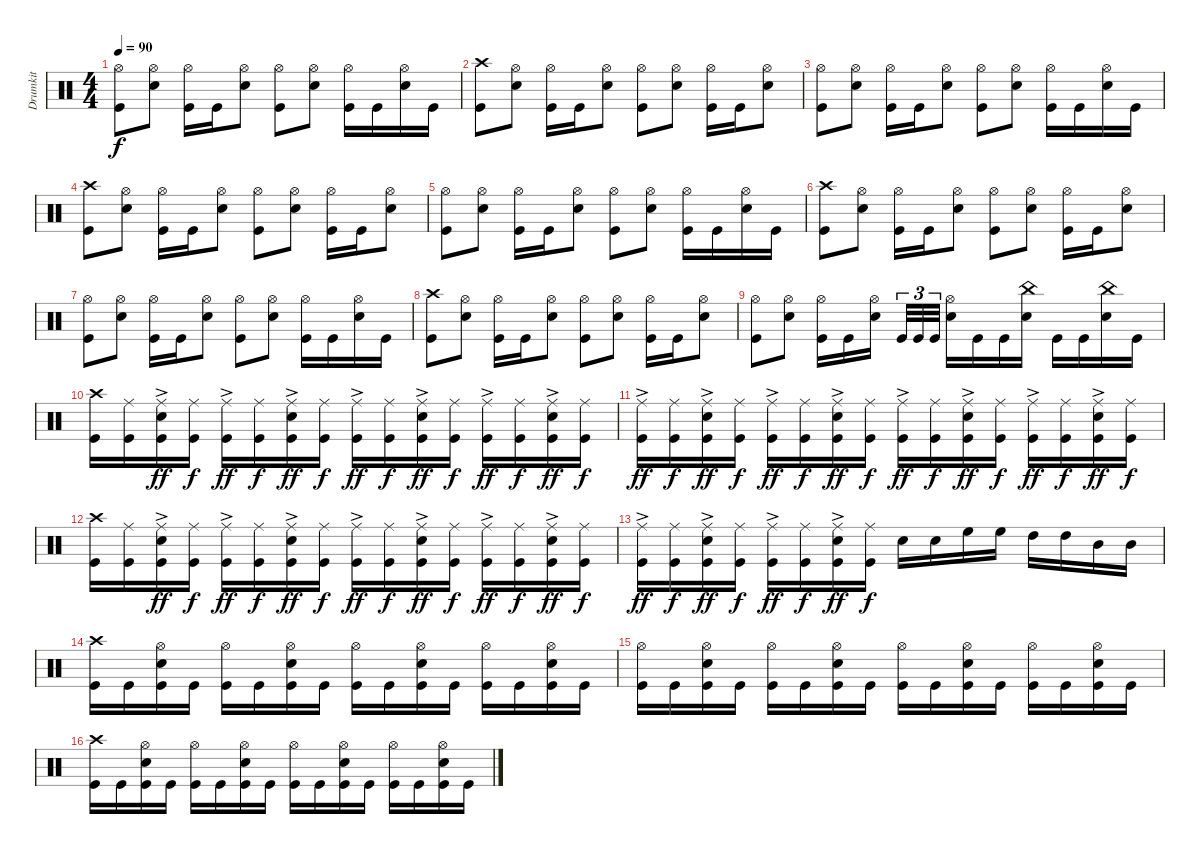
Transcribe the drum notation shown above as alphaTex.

\track ("Drumkit" "Drumkit") {instrument percussion}
\staff {score}
\articulation defaults
\ts (4 4)
\tempo 90
\clef neutral
\ks c
("Hi-Hat (open)" "Kick (hit)").8{dy f} ("Hi-Hat (open)" "Snare (hit) 2").8 ("Hi-Hat (open)" "Kick (hit)").16 "Kick (hit)".16 ("Hi-Hat (open)" "Snare (hit) 2").8 ("Hi-Hat (open)" "Kick (hit)").8 ("Hi-Hat (open)" "Snare (hit) 2").8 ("Hi-Hat (open)" "Kick (hit)").16 "Kick (hit)".16 ("Hi-Hat (open)" "Snare (hit) 2").16 "Kick (hit)".16 |
("Crash high (hit)" "Kick (hit)").8 ("Hi-Hat (open)" "Snare (hit) 2").8 ("Hi-Hat (open)" "Kick (hit)").16 "Kick (hit)".16 ("Hi-Hat (open)" "Snare (hit) 2").8 ("Hi-Hat (open)" "Kick (hit)").8 ("Hi-Hat (open)" "Snare (hit) 2").8 ("Hi-Hat (open)" "Kick (hit)").16 "Kick (hit)".16 ("Hi-Hat (open)" "Snare (hit) 2").8 |
("Hi-Hat (open)" "Kick (hit)").8 ("Hi-Hat (open)" "Snare (hit) 2").8 ("Hi-Hat (open)" "Kick (hit)").16 "Kick (hit)".16 ("Hi-Hat (open)" "Snare (hit) 2").8 ("Hi-Hat (open)" "Kick (hit)").8 ("Hi-Hat (open)" "Snare (hit) 2").8 ("Hi-Hat (open)" "Kick (hit)").16 "Kick (hit)".16 ("Hi-Hat (open)" "Snare (hit) 2").16 "Kick (hit)".16 |
("Crash high (hit)" "Kick (hit)").8 ("Hi-Hat (open)" "Snare (hit) 2").8 ("Hi-Hat (open)" "Kick (hit)").16 "Kick (hit)".16 ("Hi-Hat (open)" "Snare (hit) 2").8 ("Hi-Hat (open)" "Kick (hit)").8 ("Hi-Hat (open)" "Snare (hit) 2").8 ("Hi-Hat (open)" "Kick (hit)").16 "Kick (hit)".16 ("Hi-Hat (open)" "Snare (hit) 2").8 |
("Hi-Hat (open)" "Kick (hit)").8 ("Hi-Hat (open)" "Snare (hit) 2").8 ("Hi-Hat (open)" "Kick (hit)").16 "Kick (hit)".16 ("Hi-Hat (open)" "Snare (hit) 2").8 ("Hi-Hat (open)" "Kick (hit)").8 ("Hi-Hat (open)" "Snare (hit) 2").8 ("Hi-Hat (open)" "Kick (hit)").16 "Kick (hit)".16 ("Hi-Hat (open)" "Snare (hit) 2").16 "Kick (hit)".16 |
("Crash high (hit)" "Kick (hit)").8 ("Hi-Hat (open)" "Snare (hit) 2").8 ("Hi-Hat (open)" "Kick (hit)").16 "Kick (hit)".16 ("Hi-Hat (open)" "Snare (hit) 2").8 ("Hi-Hat (open)" "Kick (hit)").8 ("Hi-Hat (open)" "Snare (hit) 2").8 ("Hi-Hat (open)" "Kick (hit)").16 "Kick (hit)".16 ("Hi-Hat (open)" "Snare (hit) 2").8 |
("Hi-Hat (open)" "Kick (hit)").8 ("Hi-Hat (open)" "Snare (hit) 2").8 ("Hi-Hat (open)" "Kick (hit)").16 "Kick (hit)".16 ("Hi-Hat (open)" "Snare (hit) 2").8 ("Hi-Hat (open)" "Kick (hit)").8 ("Hi-Hat (open)" "Snare (hit) 2").8 ("Hi-Hat (open)" "Kick (hit)").16 "Kick (hit)".16 ("Hi-Hat (open)" "Snare (hit) 2").16 "Kick (hit)".16 |
("Crash high (hit)" "Kick (hit)").8 ("Hi-Hat (open)" "Snare (hit) 2").8 ("Hi-Hat (open)" "Kick (hit)").16 "Kick (hit)".16 ("Hi-Hat (open)" "Snare (hit) 2").8 ("Hi-Hat (open)" "Kick (hit)").8 ("Hi-Hat (open)" "Snare (hit) 2").8 ("Hi-Hat (open)" "Kick (hit)").16 "Kick (hit)".16 ("Hi-Hat (open)" "Snare (hit) 2").8 |
("Hi-Hat (open)" "Kick (hit)").8 ("Hi-Hat (open)" "Snare (hit) 2").8 ("Hi-Hat (open)" "Kick (hit)").16 "Kick (hit)".16 ("Hi-Hat (open)" "Snare (hit) 2").16{beam splitsecondary} "Kick (hit)".32{tu (3 2)} "Kick (hit)".32{tu (3 2)} "Kick (hit)".32{tu (3 2)} ("Hi-Hat (open)" "Snare (hit) 2").16 "Kick (hit)".16 "Kick (hit)".16 ("China (hit)" "Snare (hit) 2").16 "Kick (hit)".16 "Kick (hit)".16 ("China (hit)" "Snare (hit) 2").16 "Kick (hit)".16 |
("Crash high (hit)" "Kick (hit)").16 ("Ride (middle)" "Kick (hit)").16 ("Ride (middle)"{ac} "Snare (hit) 2" "Kick (hit)").16{dy ff} ("Ride (middle)" "Kick (hit)").16{dy f} ("Ride (middle)"{ac} "Kick (hit)").16{dy ff} ("Ride (middle)" "Kick (hit)").16{dy f} ("Ride (middle)"{ac} "Snare (hit) 2" "Kick (hit)").16{dy ff} ("Ride (middle)" "Kick (hit)").16{dy f} ("Ride (middle)"{ac} "Kick (hit)").16{dy ff} ("Ride (middle)" "Kick (hit)").16{dy f} ("Ride (middle)"{ac} "Snare (hit) 2" "Kick (hit)").16{dy ff} ("Ride (middle)" "Kick (hit)").16{dy f} ("Ride (middle)"{ac} "Kick (hit)").16{dy ff} ("Ride (middle)" "Kick (hit)").16{dy f} ("Ride (middle)"{ac} "Snare (hit) 2" "Kick (hit)").16{dy ff} ("Ride (middle)" "Kick (hit)").16{dy f} |
("Ride (middle)"{ac} "Kick (hit)").16{dy ff} ("Ride (middle)" "Kick (hit)").16{dy f} ("Ride (middle)"{ac} "Snare (hit) 2" "Kick (hit)").16{dy ff} ("Ride (middle)" "Kick (hit)").16{dy f} ("Ride (middle)"{ac} "Kick (hit)").16{dy ff} ("Ride (middle)" "Kick (hit)").16{dy f} ("Ride (middle)"{ac} "Snare (hit) 2" "Kick (hit)").16{dy ff} ("Ride (middle)" "Kick (hit)").16{dy f} ("Ride (middle)"{ac} "Kick (hit)").16{dy ff} ("Ride (middle)" "Kick (hit)").16{dy f} ("Ride (middle)"{ac} "Snare (hit) 2" "Kick (hit)").16{dy ff} ("Ride (middle)" "Kick (hit)").16{dy f} ("Ride (middle)"{ac} "Kick (hit)").16{dy ff} ("Ride (middle)" "Kick (hit)").16{dy f} ("Ride (middle)"{ac} "Snare (hit) 2" "Kick (hit)").16{dy ff} ("Ride (middle)" "Kick (hit)").16{dy f} |
("Crash high (hit)" "Kick (hit)").16 ("Ride (middle)" "Kick (hit)").16 ("Ride (middle)"{ac} "Snare (hit) 2" "Kick (hit)").16{dy ff} ("Ride (middle)" "Kick (hit)").16{dy f} ("Ride (middle)"{ac} "Kick (hit)").16{dy ff} ("Ride (middle)" "Kick (hit)").16{dy f} ("Ride (middle)"{ac} "Snare (hit) 2" "Kick (hit)").16{dy ff} ("Ride (middle)" "Kick (hit)").16{dy f} ("Ride (middle)"{ac} "Kick (hit)").16{dy ff} ("Ride (middle)" "Kick (hit)").16{dy f} ("Ride (middle)"{ac} "Snare (hit) 2" "Kick (hit)").16{dy ff} ("Ride (middle)" "Kick (hit)").16{dy f} ("Ride (middle)"{ac} "Kick (hit)").16{dy ff} ("Ride (middle)" "Kick (hit)").16{dy f} ("Ride (middle)"{ac} "Snare (hit) 2" "Kick (hit)").16{dy ff} ("Ride (middle)" "Kick (hit)").16{dy f} |
("Ride (middle)"{ac} "Kick (hit)").16{dy ff} ("Ride (middle)" "Kick (hit)").16{dy f} ("Ride (middle)"{ac} "Snare (hit) 2" "Kick (hit)").16{dy ff} ("Ride (middle)" "Kick (hit)").16{dy f} ("Ride (middle)"{ac} "Kick (hit)").16{dy ff} ("Ride (middle)" "Kick (hit)").16{dy f} ("Ride (middle)"{ac} "Snare (hit) 2" "Kick (hit)").16{dy ff} ("Ride (middle)" "Kick (hit)").16{dy f} "Snare (hit) 2".16 "Snare (hit) 2".16 "High Floor Tom (hit)".16 "High Floor Tom (hit)".16 "High Tom (hit)".16 "High Tom (hit)".16 "Mid Tom (hit)".16 "Mid Tom (hit)".16 |
("Crash high (hit)" "Kick (hit)").16 "Kick (hit)".16 ("Hi-Hat (open)" "Snare (hit) 2" "Kick (hit)").16 "Kick (hit)".16 ("Hi-Hat (open)" "Kick (hit)").16 "Kick (hit)".16 ("Hi-Hat (open)" "Snare (hit) 2" "Kick (hit)").16 "Kick (hit)".16 ("Hi-Hat (open)" "Kick (hit)").16 "Kick (hit)".16 ("Hi-Hat (open)" "Snare (hit) 2" "Kick (hit)").16 "Kick (hit)".16 ("Hi-Hat (open)" "Kick (hit)").16 "Kick (hit)".16 ("Hi-Hat (open)" "Snare (hit) 2" "Kick (hit)").16 "Kick (hit)".16 |
("Hi-Hat (open)" "Kick (hit)").16 "Kick (hit)".16 ("Hi-Hat (open)" "Snare (hit) 2" "Kick (hit)").16 "Kick (hit)".16 ("Hi-Hat (open)" "Kick (hit)").16 "Kick (hit)".16 ("Hi-Hat (open)" "Snare (hit) 2" "Kick (hit)").16 "Kick (hit)".16 ("Hi-Hat (open)" "Kick (hit)").16 "Kick (hit)".16 ("Hi-Hat (open)" "Snare (hit) 2" "Kick (hit)").16 "Kick (hit)".16 ("Hi-Hat (open)" "Kick (hit)").16 "Kick (hit)".16 ("Hi-Hat (open)" "Snare (hit) 2" "Kick (hit)").16 "Kick (hit)".16 |
("Crash high (hit)" "Kick (hit)").16 "Kick (hit)".16 ("Hi-Hat (open)" "Snare (hit) 2" "Kick (hit)").16 "Kick (hit)".16 ("Hi-Hat (open)" "Kick (hit)").16 "Kick (hit)".16 ("Hi-Hat (open)" "Snare (hit) 2" "Kick (hit)").16 "Kick (hit)".16 ("Hi-Hat (open)" "Kick (hit)").16 "Kick (hit)".16 ("Hi-Hat (open)" "Snare (hit) 2" "Kick (hit)").16 "Kick (hit)".16 ("Hi-Hat (open)" "Kick (hit)").16 "Kick (hit)".16 ("Hi-Hat (open)" "Snare (hit) 2" "Kick (hit)").16 "Kick (hit)".16
